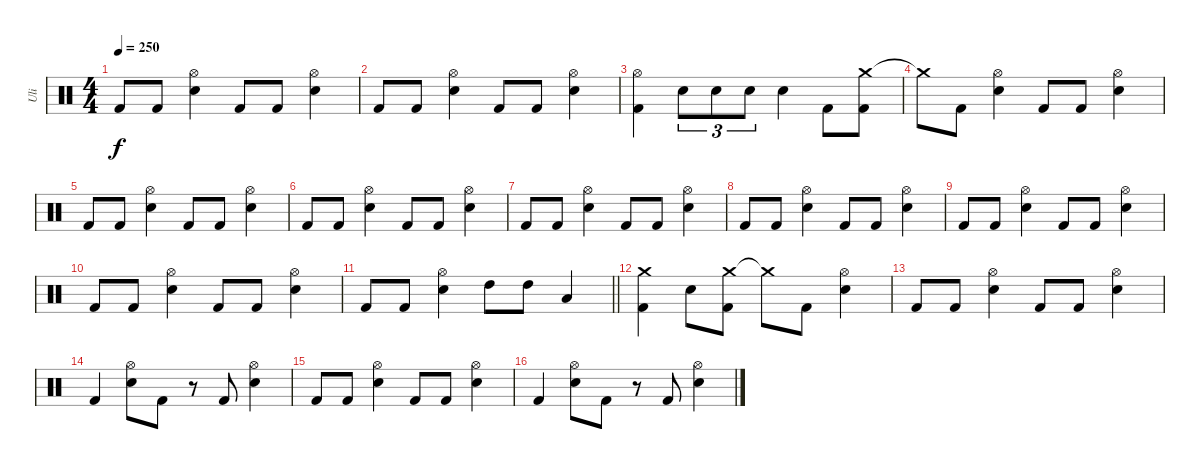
\track ("Uli" "Uli") {instrument percussion}
\staff {score}
\articulation defaults
\ts (4 4)
\tempo 250
\clef neutral
\ks c "Kick (hit) 2".8{dy f} "Kick (hit) 2".8
("Hi-Hat (open)" "Snare (hit) 2").4 "Kick (hit) 2".8 "Kick (hit) 2".8 ("Hi-Hat (open)" "Snare (hit) 2").4 |
"Kick (hit) 2".8 "Kick (hit) 2".8 ("Hi-Hat (open)" "Snare (hit) 2").4 "Kick (hit) 2".8 "Kick (hit) 2".8 ("Hi-Hat (open)" "Snare (hit) 2").4 |
("Hi-Hat (open)" "Kick (hit) 2").4 "Snare (hit) 2".8{tu (3 2)} "Snare (hit) 2".8{tu (3 2)} "Snare (hit) 2".8{tu (3 2)} "Snare (hit) 2".4 "Kick (hit) 2".8 ("Crash medium (hit)" "Kick (hit) 2").8 |
"Crash medium (hit)"{t}.8 "Kick (hit) 2".8 ("Hi-Hat (open)" "Snare (hit) 2").4 "Kick (hit) 2".8 "Kick (hit) 2".8 ("Hi-Hat (open)" "Snare (hit) 2").4 |
"Kick (hit) 2".8 "Kick (hit) 2".8 ("Hi-Hat (open)" "Snare (hit) 2").4 "Kick (hit) 2".8 "Kick (hit) 2".8 ("Hi-Hat (open)" "Snare (hit) 2").4 |
"Kick (hit) 2".8 "Kick (hit) 2".8 ("Hi-Hat (open)" "Snare (hit) 2").4 "Kick (hit) 2".8 "Kick (hit) 2".8 ("Hi-Hat (open)" "Snare (hit) 2").4 |
"Kick (hit) 2".8 "Kick (hit) 2".8 ("Hi-Hat (open)" "Snare (hit) 2").4 "Kick (hit) 2".8 "Kick (hit) 2".8 ("Hi-Hat (open)" "Snare (hit) 2").4 |
"Kick (hit) 2".8 "Kick (hit) 2".8 ("Hi-Hat (open)" "Snare (hit) 2").4 "Kick (hit) 2".8 "Kick (hit) 2".8 ("Hi-Hat (open)" "Snare (hit) 2").4 |
"Kick (hit) 2".8 "Kick (hit) 2".8 ("Hi-Hat (open)" "Snare (hit) 2").4 "Kick (hit) 2".8 "Kick (hit) 2".8 ("Hi-Hat (open)" "Snare (hit) 2").4 |
"Kick (hit) 2".8 "Kick (hit) 2".8 ("Hi-Hat (open)" "Snare (hit) 2").4 "Kick (hit) 2".8 "Kick (hit) 2".8 ("Hi-Hat (open)" "Snare (hit) 2").4 |
\barLineRight lightlight "Kick (hit) 2".8 "Kick (hit) 2".8
("Hi-Hat (open)" "Snare (hit) 2").4 "High Tom (hit)".8 "High Tom (hit)".8 "Low Tom (hit)".4 |
("Crash medium (hit)" "Kick (hit) 2").4 "Snare (hit) 2".8 ("Crash medium (hit)" "Kick (hit) 2").8 "Crash medium (hit)"{t}.8 "Kick (hit) 2".8 ("Hi-Hat (open)" "Snare (hit) 2").4 |
"Kick (hit) 2".8 "Kick (hit) 2".8 ("Hi-Hat (open)" "Snare (hit) 2").4 "Kick (hit) 2".8 "Kick (hit) 2".8 ("Hi-Hat (open)" "Snare (hit) 2").4 |
"Kick (hit) 2".4 ("Hi-Hat (open)" "Snare (hit) 2").8 "Kick (hit) 2".8 r.8 "Kick (hit) 2".8 ("Hi-Hat (open)" "Snare (hit) 2").4 |
"Kick (hit) 2".8 "Kick (hit) 2".8 ("Hi-Hat (open)" "Snare (hit) 2").4 "Kick (hit) 2".8 "Kick (hit) 2".8 ("Hi-Hat (open)" "Snare (hit) 2").4 |
"Kick (hit) 2".4 ("Hi-Hat (open)" "Snare (hit) 2").8 "Kick (hit) 2".8 r.8 "Kick (hit) 2".8 ("Hi-Hat (open)" "Snare (hit) 2").4
